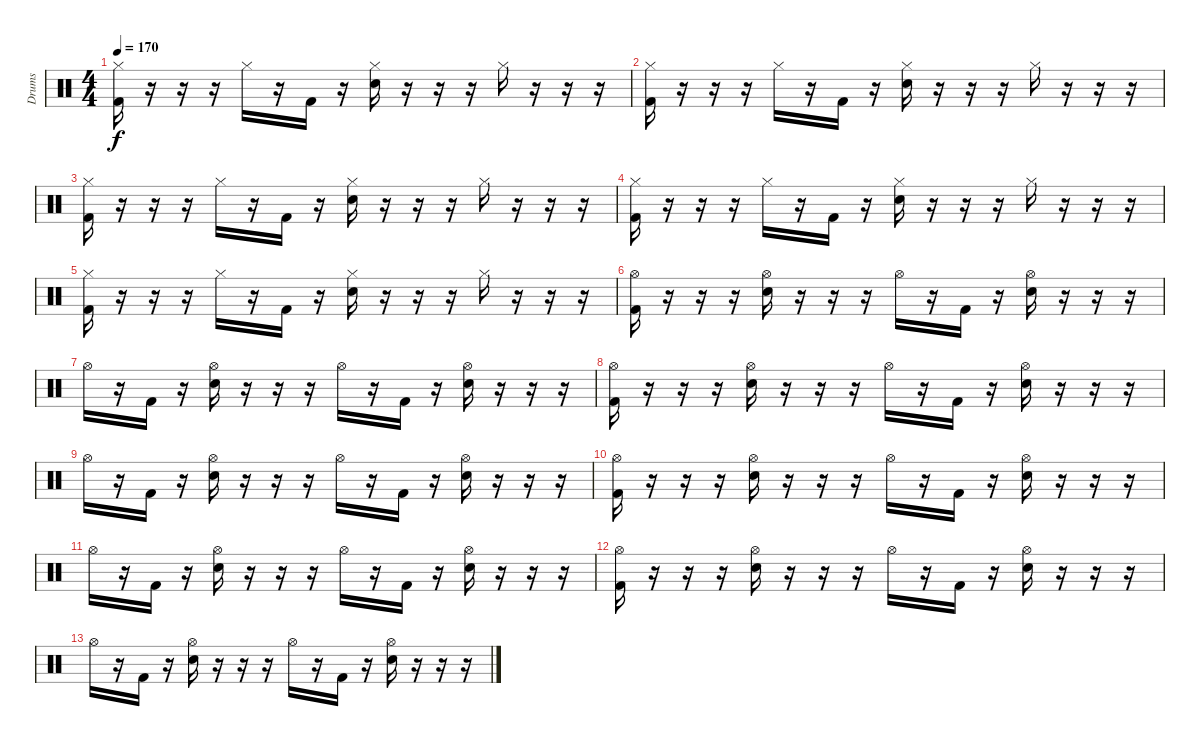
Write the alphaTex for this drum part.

\track ("Drums" "Drums") {instrument percussion}
\staff {score}
\articulation defaults
\ts (4 4)
\tempo 170
\clef neutral
\ks c
("Hi-Hat (closed)" "Kick (hit) 2").16{dy f} r.16 r.16 r.16 "Hi-Hat (closed)".16 r.16 "Kick (hit) 2".16 r.16 ("Hi-Hat (closed)" "Electric Snare (hit)").16 r.16 r.16 r.16 "Hi-Hat (closed)".16 r.16 r.16 r.16 |
("Hi-Hat (closed)" "Kick (hit) 2").16 r.16 r.16 r.16 "Hi-Hat (closed)".16 r.16 "Kick (hit) 2".16 r.16 ("Hi-Hat (closed)" "Electric Snare (hit)").16 r.16 r.16 r.16 "Hi-Hat (closed)".16 r.16 r.16 r.16 |
("Hi-Hat (closed)" "Kick (hit) 2").16 r.16 r.16 r.16 "Hi-Hat (closed)".16 r.16 "Kick (hit) 2".16 r.16 ("Hi-Hat (closed)" "Electric Snare (hit)").16 r.16 r.16 r.16 "Hi-Hat (closed)".16 r.16 r.16 r.16 |
("Hi-Hat (closed)" "Kick (hit) 2").16 r.16 r.16 r.16 "Hi-Hat (closed)".16 r.16 "Kick (hit) 2".16 r.16 ("Hi-Hat (closed)" "Electric Snare (hit)").16 r.16 r.16 r.16 "Hi-Hat (closed)".16 r.16 r.16 r.16 |
("Hi-Hat (closed)" "Kick (hit) 2").16 r.16 r.16 r.16 "Hi-Hat (closed)".16 r.16 "Kick (hit) 2".16 r.16 ("Hi-Hat (closed)" "Electric Snare (hit)").16 r.16 r.16 r.16 "Hi-Hat (closed)".16 r.16 r.16 r.16 |
("Hi-Hat (open)" "Kick (hit) 2").16 r.16 r.16 r.16 ("Hi-Hat (open)" "Electric Snare (hit)").16 r.16 r.16 r.16 "Hi-Hat (open)".16 r.16 "Kick (hit) 2".16 r.16 ("Hi-Hat (open)" "Electric Snare (hit)").16 r.16 r.16 r.16 |
"Hi-Hat (open)".16 r.16 "Kick (hit) 2".16 r.16 ("Hi-Hat (open)" "Electric Snare (hit)").16 r.16 r.16 r.16 "Hi-Hat (open)".16 r.16 "Kick (hit) 2".16 r.16 ("Hi-Hat (open)" "Electric Snare (hit)").16 r.16 r.16 r.16 |
("Hi-Hat (open)" "Kick (hit) 2").16 r.16 r.16 r.16 ("Hi-Hat (open)" "Electric Snare (hit)").16 r.16 r.16 r.16 "Hi-Hat (open)".16 r.16 "Kick (hit) 2".16 r.16 ("Hi-Hat (open)" "Electric Snare (hit)").16 r.16 r.16 r.16 |
"Hi-Hat (open)".16 r.16 "Kick (hit) 2".16 r.16 ("Hi-Hat (open)" "Electric Snare (hit)").16 r.16 r.16 r.16 "Hi-Hat (open)".16 r.16 "Kick (hit) 2".16 r.16 ("Hi-Hat (open)" "Electric Snare (hit)").16 r.16 r.16 r.16 |
("Hi-Hat (open)" "Kick (hit) 2").16 r.16 r.16 r.16 ("Hi-Hat (open)" "Electric Snare (hit)").16 r.16 r.16 r.16 "Hi-Hat (open)".16 r.16 "Kick (hit) 2".16 r.16 ("Hi-Hat (open)" "Electric Snare (hit)").16 r.16 r.16 r.16 |
"Hi-Hat (open)".16 r.16 "Kick (hit) 2".16 r.16 ("Hi-Hat (open)" "Electric Snare (hit)").16 r.16 r.16 r.16 "Hi-Hat (open)".16 r.16 "Kick (hit) 2".16 r.16 ("Hi-Hat (open)" "Electric Snare (hit)").16 r.16 r.16 r.16 |
("Hi-Hat (open)" "Kick (hit) 2").16 r.16 r.16 r.16 ("Hi-Hat (open)" "Electric Snare (hit)").16 r.16 r.16 r.16 "Hi-Hat (open)".16 r.16 "Kick (hit) 2".16 r.16 ("Hi-Hat (open)" "Electric Snare (hit)").16 r.16 r.16 r.16 |
"Hi-Hat (open)".16 r.16 "Kick (hit) 2".16 r.16 ("Hi-Hat (open)" "Electric Snare (hit)").16 r.16 r.16 r.16 "Hi-Hat (open)".16 r.16 "Kick (hit) 2".16 r.16 ("Hi-Hat (open)" "Electric Snare (hit)").16 r.16 r.16 r.16
